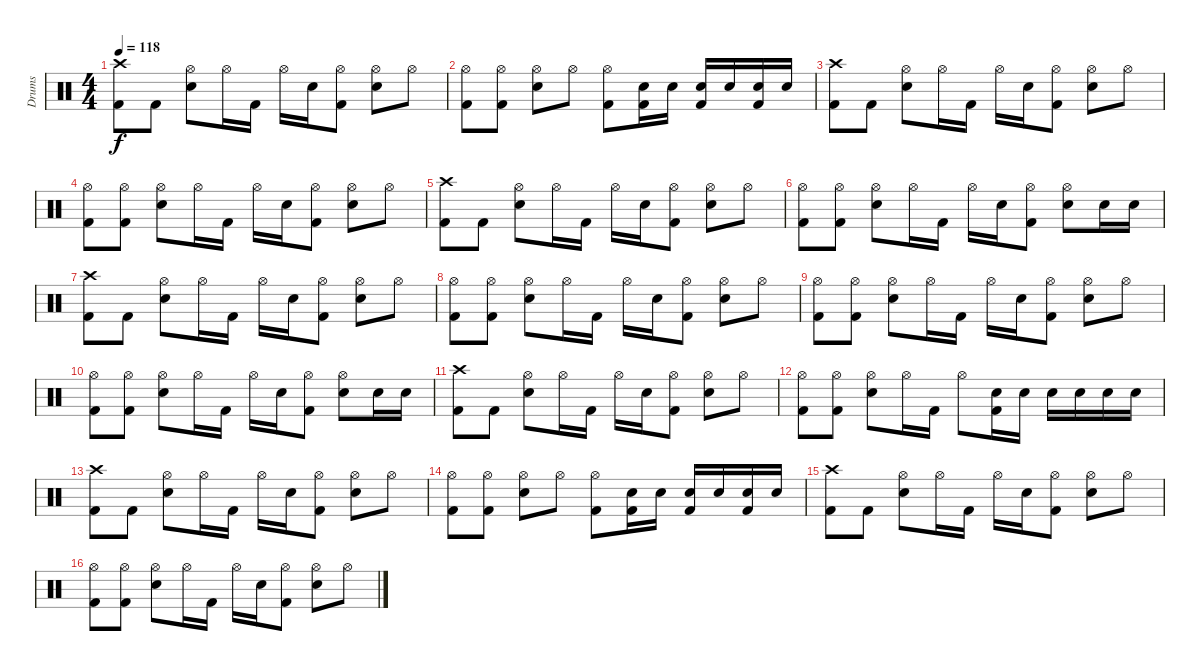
\track ("Drums" "Drums") {instrument percussion}
\staff {score}
\articulation defaults
\ts (4 4)
\tempo 118
\clef neutral
\ks c
("Crash high (hit)" "Kick (hit) 2").8{dy f} "Kick (hit) 2".8 ("Hi-Hat (open)" "Electric Snare (hit)").8 "Hi-Hat (open)".16 "Kick (hit) 2".16 "Hi-Hat (open)".16 "Electric Snare (hit)".16 ("Hi-Hat (open)" "Kick (hit) 2").8 ("Hi-Hat (open)" "Electric Snare (hit)").8 "Hi-Hat (open)".8 |
("Hi-Hat (open)" "Kick (hit) 2").8 ("Hi-Hat (open)" "Kick (hit) 2").8 ("Hi-Hat (open)" "Electric Snare (hit)").8 "Hi-Hat (open)".8 ("Hi-Hat (open)" "Kick (hit) 2").8 ("Electric Snare (hit)" "Kick (hit) 2").16 "Electric Snare (hit)".16 ("Electric Snare (hit)" "Kick (hit) 2").16 "Electric Snare (hit)".16 ("Electric Snare (hit)" "Kick (hit) 2").16 "Electric Snare (hit)".16 |
("Crash high (hit)" "Kick (hit) 2").8 "Kick (hit) 2".8 ("Hi-Hat (open)" "Electric Snare (hit)").8 "Hi-Hat (open)".16 "Kick (hit) 2".16 "Hi-Hat (open)".16 "Electric Snare (hit)".16 ("Hi-Hat (open)" "Kick (hit) 2").8 ("Hi-Hat (open)" "Electric Snare (hit)").8 "Hi-Hat (open)".8 |
("Hi-Hat (open)" "Kick (hit) 2").8 ("Hi-Hat (open)" "Kick (hit) 2").8 ("Hi-Hat (open)" "Electric Snare (hit)").8 "Hi-Hat (open)".16 "Kick (hit) 2".16 "Hi-Hat (open)".16 "Electric Snare (hit)".16 ("Hi-Hat (open)" "Kick (hit) 2").8 ("Hi-Hat (open)" "Electric Snare (hit)").8 "Hi-Hat (open)".8 |
("Crash high (hit)" "Kick (hit) 2").8 "Kick (hit) 2".8 ("Hi-Hat (open)" "Electric Snare (hit)").8 "Hi-Hat (open)".16 "Kick (hit) 2".16 "Hi-Hat (open)".16 "Electric Snare (hit)".16 ("Hi-Hat (open)" "Kick (hit) 2").8 ("Hi-Hat (open)" "Electric Snare (hit)").8 "Hi-Hat (open)".8 |
("Hi-Hat (open)" "Kick (hit) 2").8 ("Hi-Hat (open)" "Kick (hit) 2").8 ("Hi-Hat (open)" "Electric Snare (hit)").8 "Hi-Hat (open)".16 "Kick (hit) 2".16 "Hi-Hat (open)".16 "Electric Snare (hit)".16 ("Hi-Hat (open)" "Kick (hit) 2").8 ("Hi-Hat (open)" "Electric Snare (hit)").8 "Electric Snare (hit)".16 "Electric Snare (hit)".16 |
("Crash high (hit)" "Kick (hit) 2").8 "Kick (hit) 2".8 ("Hi-Hat (open)" "Electric Snare (hit)").8 "Hi-Hat (open)".16 "Kick (hit) 2".16 "Hi-Hat (open)".16 "Electric Snare (hit)".16 ("Hi-Hat (open)" "Kick (hit) 2").8 ("Hi-Hat (open)" "Electric Snare (hit)").8 "Hi-Hat (open)".8 |
("Hi-Hat (open)" "Kick (hit) 2").8 ("Hi-Hat (open)" "Kick (hit) 2").8 ("Hi-Hat (open)" "Electric Snare (hit)").8 "Hi-Hat (open)".16 "Kick (hit) 2".16 "Hi-Hat (open)".16 "Electric Snare (hit)".16 ("Hi-Hat (open)" "Kick (hit) 2").8 ("Hi-Hat (open)" "Electric Snare (hit)").8 "Hi-Hat (open)".8 |
("Hi-Hat (open)" "Kick (hit) 2").8 ("Hi-Hat (open)" "Kick (hit) 2").8 ("Hi-Hat (open)" "Electric Snare (hit)").8 "Hi-Hat (open)".16 "Kick (hit) 2".16 "Hi-Hat (open)".16 "Electric Snare (hit)".16 ("Hi-Hat (open)" "Kick (hit) 2").8 ("Hi-Hat (open)" "Electric Snare (hit)").8 "Hi-Hat (open)".8 |
("Hi-Hat (open)" "Kick (hit) 2").8 ("Hi-Hat (open)" "Kick (hit) 2").8 ("Hi-Hat (open)" "Electric Snare (hit)").8 "Hi-Hat (open)".16 "Kick (hit) 2".16 "Hi-Hat (open)".16 "Electric Snare (hit)".16 ("Hi-Hat (open)" "Kick (hit) 2").8 ("Hi-Hat (open)" "Electric Snare (hit)").8 "Electric Snare (hit)".16 "Electric Snare (hit)".16 |
("Crash high (hit)" "Kick (hit) 2").8 "Kick (hit) 2".8 ("Hi-Hat (open)" "Electric Snare (hit)").8 "Hi-Hat (open)".16 "Kick (hit) 2".16 "Hi-Hat (open)".16 "Electric Snare (hit)".16 ("Hi-Hat (open)" "Kick (hit) 2").8 ("Hi-Hat (open)" "Electric Snare (hit)").8 "Hi-Hat (open)".8 |
("Hi-Hat (open)" "Kick (hit) 2").8 ("Hi-Hat (open)" "Kick (hit) 2").8 ("Hi-Hat (open)" "Electric Snare (hit)").8 "Hi-Hat (open)".16 "Kick (hit) 2".16 "Hi-Hat (open)".8 ("Electric Snare (hit)" "Kick (hit) 2").16 "Electric Snare (hit)".16 "Electric Snare (hit)".16 "Electric Snare (hit)".16 "Electric Snare (hit)".16 "Electric Snare (hit)".16 |
("Crash high (hit)" "Kick (hit) 2").8 "Kick (hit) 2".8 ("Hi-Hat (open)" "Electric Snare (hit)").8 "Hi-Hat (open)".16 "Kick (hit) 2".16 "Hi-Hat (open)".16 "Electric Snare (hit)".16 ("Hi-Hat (open)" "Kick (hit) 2").8 ("Hi-Hat (open)" "Electric Snare (hit)").8 "Hi-Hat (open)".8 |
("Hi-Hat (open)" "Kick (hit) 2").8 ("Hi-Hat (open)" "Kick (hit) 2").8 ("Hi-Hat (open)" "Electric Snare (hit)").8 "Hi-Hat (open)".8 ("Hi-Hat (open)" "Kick (hit) 2").8 ("Electric Snare (hit)" "Kick (hit) 2").16 "Electric Snare (hit)".16 ("Electric Snare (hit)" "Kick (hit) 2").16 "Electric Snare (hit)".16 ("Electric Snare (hit)" "Kick (hit) 2").16 "Electric Snare (hit)".16 |
("Crash high (hit)" "Kick (hit) 2").8 "Kick (hit) 2".8 ("Hi-Hat (open)" "Electric Snare (hit)").8 "Hi-Hat (open)".16 "Kick (hit) 2".16 "Hi-Hat (open)".16 "Electric Snare (hit)".16 ("Hi-Hat (open)" "Kick (hit) 2").8 ("Hi-Hat (open)" "Electric Snare (hit)").8 "Hi-Hat (open)".8 |
("Hi-Hat (open)" "Kick (hit) 2").8 ("Hi-Hat (open)" "Kick (hit) 2").8 ("Hi-Hat (open)" "Electric Snare (hit)").8 "Hi-Hat (open)".16 "Kick (hit) 2".16 "Hi-Hat (open)".16 "Electric Snare (hit)".16 ("Hi-Hat (open)" "Kick (hit) 2").8 ("Hi-Hat (open)" "Electric Snare (hit)").8 "Hi-Hat (open)".8
